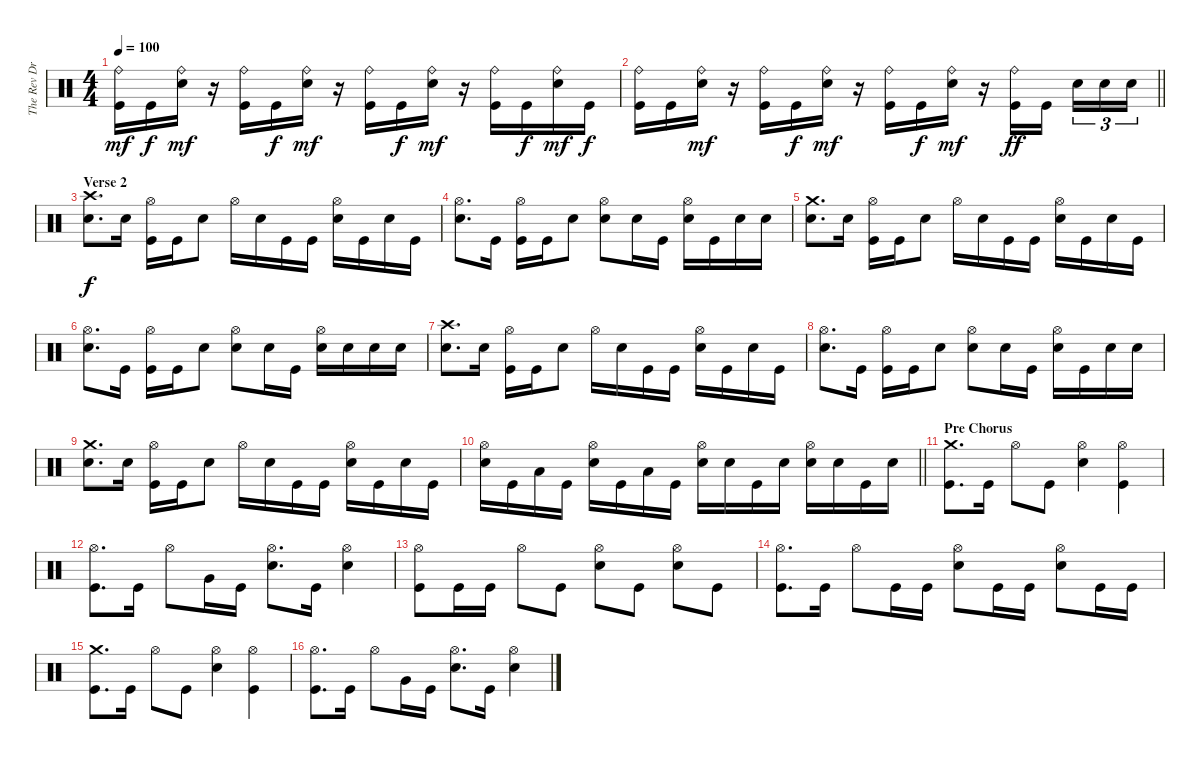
\track ("The Rev Drums" "The Rev Dr") {instrument percussion}
\staff {score}
\articulation defaults
\ts (4 4)
\tempo 100
\clef neutral
\ks c
("Ride (bell)" "Kick (hit)").16{dy mf} "Kick (hit)".16{dy f} ("Ride (bell)" "Electric Snare (hit)").16{dy mf} r.16 ("Ride (bell)" "Kick (hit)").16 "Kick (hit)".16{dy f} ("Ride (bell)" "Electric Snare (hit)").16{dy mf} r.16 ("Ride (bell)" "Kick (hit)").16 "Kick (hit)".16{dy f} ("Ride (bell)" "Electric Snare (hit)").16{dy mf} r.16 ("Ride (bell)" "Kick (hit)").16 "Kick (hit)".16{dy f} ("Ride (bell)" "Electric Snare (hit)").16{dy mf} "Kick (hit)".16{dy f} |
\barLineRight lightlight
("Ride (bell)" "Kick (hit)").16 "Kick (hit)".16 ("Ride (bell)" "Electric Snare (hit)").16{dy mf} r.16 ("Ride (bell)" "Kick (hit)").16 "Kick (hit)".16{dy f} ("Ride (bell)" "Electric Snare (hit)").16{dy mf} r.16 ("Ride (bell)" "Kick (hit)").16 "Kick (hit)".16{dy f} ("Ride (bell)" "Electric Snare (hit)").16{dy mf} r.16 ("Ride (bell)" "Kick (hit)").16{dy ff} "Kick (hit)".16{beam splitsecondary} "Electric Snare (hit)".16{tu (3 2)} "Electric Snare (hit)".16{tu (3 2)} "Electric Snare (hit)".16{tu (3 2)} |
\section ("" "Verse 2")
("Crash high (hit)" "Electric Snare (hit)").8{d dy f} "Electric Snare (hit)".16 ("Hi-Hat (open)" "Kick (hit)").16 "Kick (hit)".16 "Electric Snare (hit)".8 "Hi-Hat (open)".16 "Electric Snare (hit)".16 "Kick (hit)".16 "Kick (hit)".16 ("Hi-Hat (open)" "Electric Snare (hit)").16 "Kick (hit)".16 "Electric Snare (hit)".16 "Kick (hit)".16 |
("Hi-Hat (open)" "Electric Snare (hit)").8{d} "Kick (hit)".16 ("Hi-Hat (open)" "Kick (hit)").16 "Kick (hit)".16 "Electric Snare (hit)".8 ("Hi-Hat (open)" "Electric Snare (hit)").8 "Electric Snare (hit)".16 "Kick (hit)".16 ("Hi-Hat (open)" "Electric Snare (hit)").16 "Kick (hit)".16 "Electric Snare (hit)".16 "Electric Snare (hit)".16 |
("Crash medium (hit)" "Electric Snare (hit)").8{d} "Electric Snare (hit)".16 ("Hi-Hat (open)" "Kick (hit)").16 "Kick (hit)".16 "Electric Snare (hit)".8 "Hi-Hat (open)".16 "Electric Snare (hit)".16 "Kick (hit)".16 "Kick (hit)".16 ("Hi-Hat (open)" "Electric Snare (hit)").16 "Kick (hit)".16 "Electric Snare (hit)".16 "Kick (hit)".16 |
("Hi-Hat (open)" "Electric Snare (hit)").8{d} "Kick (hit)".16 ("Hi-Hat (open)" "Kick (hit)").16 "Kick (hit)".16 "Electric Snare (hit)".8 ("Hi-Hat (open)" "Electric Snare (hit)").8 "Electric Snare (hit)".16 "Kick (hit)".16 ("Hi-Hat (open)" "Electric Snare (hit)").16 "Electric Snare (hit)".16 "Electric Snare (hit)".16 "Electric Snare (hit)".16 |
("Crash high (hit)" "Electric Snare (hit)").8{d} "Electric Snare (hit)".16 ("Hi-Hat (open)" "Kick (hit)").16 "Kick (hit)".16 "Electric Snare (hit)".8 "Hi-Hat (open)".16 "Electric Snare (hit)".16 "Kick (hit)".16 "Kick (hit)".16 ("Hi-Hat (open)" "Electric Snare (hit)").16 "Kick (hit)".16 "Electric Snare (hit)".16 "Kick (hit)".16 |
("Hi-Hat (open)" "Electric Snare (hit)").8{d} "Kick (hit)".16 ("Hi-Hat (open)" "Kick (hit)").16 "Kick (hit)".16 "Electric Snare (hit)".8 ("Hi-Hat (open)" "Electric Snare (hit)").8 "Electric Snare (hit)".16 "Kick (hit)".16 ("Hi-Hat (open)" "Electric Snare (hit)").16 "Kick (hit)".16 "Electric Snare (hit)".16 "Electric Snare (hit)".16 |
("Crash medium (hit)" "Electric Snare (hit)").8{d} "Electric Snare (hit)".16 ("Hi-Hat (open)" "Kick (hit)").16 "Kick (hit)".16 "Electric Snare (hit)".8 "Hi-Hat (open)".16 "Electric Snare (hit)".16 "Kick (hit)".16 "Kick (hit)".16 ("Hi-Hat (open)" "Electric Snare (hit)").16 "Kick (hit)".16 "Electric Snare (hit)".16 "Kick (hit)".16 |
\barLineRight lightlight
("Hi-Hat (open)" "Electric Snare (hit)").16 "Kick (hit)".16 "Low Tom (hit)".16 "Kick (hit)".16 ("Hi-Hat (open)" "Electric Snare (hit)").16 "Kick (hit)".16 "Low Tom (hit)".16 "Kick (hit)".16 ("Hi-Hat (open)" "Electric Snare (hit)").16 "Electric Snare (hit)".16 "Kick (hit)".16 "Electric Snare (hit)".16 ("Hi-Hat (open)" "Electric Snare (hit)").16 "Electric Snare (hit)".16 "Kick (hit)".16 "Electric Snare (hit)".16 |
\section ("" "Pre Chorus")
("Crash medium (hit)" "Kick (hit)").8{d} "Kick (hit)".16 "Hi-Hat (open)".8 "Kick (hit)".8 ("Hi-Hat (open)" "Electric Snare (hit)").4 ("Hi-Hat (open)" "Kick (hit)").4 |
("Hi-Hat (open)" "Kick (hit)").8{d} "Kick (hit)".16 "Hi-Hat (open)".8 "Very Low Tom (hit)".16 "Kick (hit)".16 ("Hi-Hat (open)" "Electric Snare (hit)").8{d} "Kick (hit)".16 ("Hi-Hat (open)" "Electric Snare (hit)").4 |
("Hi-Hat (open)" "Kick (hit)").8 "Kick (hit)".16 "Kick (hit)".16 "Hi-Hat (open)".8 "Kick (hit)".8 ("Hi-Hat (open)" "Electric Snare (hit)").8 "Kick (hit)".8 ("Hi-Hat (open)" "Electric Snare (hit)").8 "Kick (hit)".8 |
("Hi-Hat (open)" "Kick (hit)").8{d} "Kick (hit)".16 "Hi-Hat (open)".8 "Kick (hit)".16 "Kick (hit)".16 ("Hi-Hat (open)" "Electric Snare (hit)").8 "Kick (hit)".16 "Kick (hit)".16 ("Hi-Hat (open)" "Electric Snare (hit)").8 "Kick (hit)".16 "Kick (hit)".16 |
("Crash medium (hit)" "Kick (hit)").8{d} "Kick (hit)".16 "Hi-Hat (open)".8 "Kick (hit)".8 ("Hi-Hat (open)" "Electric Snare (hit)").4 ("Hi-Hat (open)" "Kick (hit)").4 |
("Hi-Hat (open)" "Kick (hit)").8{d} "Kick (hit)".16 "Hi-Hat (open)".8 "Very Low Tom (hit)".16 "Kick (hit)".16 ("Hi-Hat (open)" "Electric Snare (hit)").8{d} "Kick (hit)".16 ("Hi-Hat (open)" "Electric Snare (hit)").4
